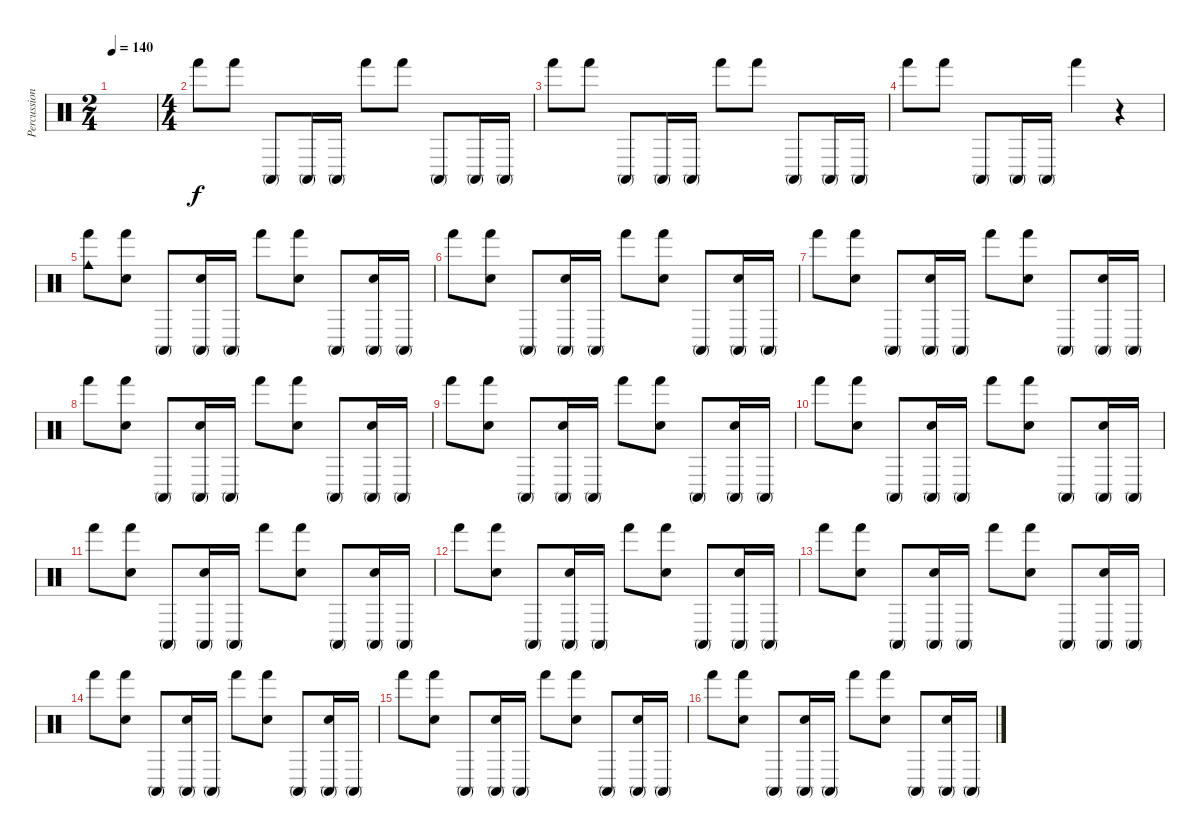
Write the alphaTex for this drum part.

\track ("Percussion" "Percussion") {instrument percussion}
\staff {score}
\articulation defaults
\ts (2 4)
\tempo 140
\clef neutral
\ks c
|
\ts (4 4)
"Hand (hit)".8 "Hand (hit)".8 "Conga high (mute)".8 "Conga high (mute)".16 "Conga high (mute)".16 "Hand (hit)".8 "Hand (hit)".8 "Conga high (mute)".8 "Conga high (mute)".16 "Conga high (mute)".16 |
"Hand (hit)".8 "Hand (hit)".8 "Conga high (mute)".8 "Conga high (mute)".16 "Conga high (mute)".16 "Hand (hit)".8 "Hand (hit)".8 "Conga high (mute)".8 "Conga high (mute)".16 "Conga high (mute)".16 |
"Hand (hit)".8 "Hand (hit)".8 "Conga high (mute)".8 "Conga high (mute)".16 "Conga high (mute)".16 "Hand (hit)".4 r.4 |
("Cowbell medium (hit)" "Hand (hit)").8 ("Hand Clap (hit)" "Hand (hit)").8 "Conga high (mute)".8 ("Hand Clap (hit)" "Conga high (mute)").16 "Conga high (mute)".16 "Hand (hit)".8 ("Hand Clap (hit)" "Hand (hit)").8 "Conga high (mute)".8 ("Hand Clap (hit)" "Conga high (mute)").16 "Conga high (mute)".16 |
"Hand (hit)".8 ("Hand Clap (hit)" "Hand (hit)").8 "Conga high (mute)".8 ("Hand Clap (hit)" "Conga high (mute)").16 "Conga high (mute)".16 "Hand (hit)".8 ("Hand Clap (hit)" "Hand (hit)").8 "Conga high (mute)".8 ("Hand Clap (hit)" "Conga high (mute)").16 "Conga high (mute)".16 |
"Hand (hit)".8 ("Hand Clap (hit)" "Hand (hit)").8 "Conga high (mute)".8 ("Hand Clap (hit)" "Conga high (mute)").16 "Conga high (mute)".16 "Hand (hit)".8 ("Hand Clap (hit)" "Hand (hit)").8 "Conga high (mute)".8 ("Hand Clap (hit)" "Conga high (mute)").16 "Conga high (mute)".16 |
"Hand (hit)".8 ("Hand Clap (hit)" "Hand (hit)").8 "Conga high (mute)".8 ("Hand Clap (hit)" "Conga high (mute)").16 "Conga high (mute)".16 "Hand (hit)".8 ("Hand Clap (hit)" "Hand (hit)").8 "Conga high (mute)".8 ("Hand Clap (hit)" "Conga high (mute)").16 "Conga high (mute)".16 |
"Hand (hit)".8 ("Hand Clap (hit)" "Hand (hit)").8 "Conga high (mute)".8 ("Hand Clap (hit)" "Conga high (mute)").16 "Conga high (mute)".16 "Hand (hit)".8 ("Hand Clap (hit)" "Hand (hit)").8 "Conga high (mute)".8 ("Hand Clap (hit)" "Conga high (mute)").16 "Conga high (mute)".16 |
"Hand (hit)".8 ("Hand Clap (hit)" "Hand (hit)").8 "Conga high (mute)".8 ("Hand Clap (hit)" "Conga high (mute)").16 "Conga high (mute)".16 "Hand (hit)".8 ("Hand Clap (hit)" "Hand (hit)").8 "Conga high (mute)".8 ("Hand Clap (hit)" "Conga high (mute)").16 "Conga high (mute)".16 |
"Hand (hit)".8 ("Hand Clap (hit)" "Hand (hit)").8 "Conga high (mute)".8 ("Hand Clap (hit)" "Conga high (mute)").16 "Conga high (mute)".16 "Hand (hit)".8 ("Hand Clap (hit)" "Hand (hit)").8 "Conga high (mute)".8 ("Hand Clap (hit)" "Conga high (mute)").16 "Conga high (mute)".16 |
"Hand (hit)".8 ("Hand Clap (hit)" "Hand (hit)").8 "Conga high (mute)".8 ("Hand Clap (hit)" "Conga high (mute)").16 "Conga high (mute)".16 "Hand (hit)".8 ("Hand Clap (hit)" "Hand (hit)").8 "Conga high (mute)".8 ("Hand Clap (hit)" "Conga high (mute)").16 "Conga high (mute)".16 |
"Hand (hit)".8 ("Hand Clap (hit)" "Hand (hit)").8 "Conga high (mute)".8 ("Hand Clap (hit)" "Conga high (mute)").16 "Conga high (mute)".16 "Hand (hit)".8 ("Hand Clap (hit)" "Hand (hit)").8 "Conga high (mute)".8 ("Hand Clap (hit)" "Conga high (mute)").16 "Conga high (mute)".16 |
"Hand (hit)".8 ("Hand Clap (hit)" "Hand (hit)").8 "Conga high (mute)".8 ("Hand Clap (hit)" "Conga high (mute)").16 "Conga high (mute)".16 "Hand (hit)".8 ("Hand Clap (hit)" "Hand (hit)").8 "Conga high (mute)".8 ("Hand Clap (hit)" "Conga high (mute)").16 "Conga high (mute)".16 |
"Hand (hit)".8 ("Hand Clap (hit)" "Hand (hit)").8 "Conga high (mute)".8 ("Hand Clap (hit)" "Conga high (mute)").16 "Conga high (mute)".16 "Hand (hit)".8 ("Hand Clap (hit)" "Hand (hit)").8 "Conga high (mute)".8 ("Hand Clap (hit)" "Conga high (mute)").16 "Conga high (mute)".16 |
"Hand (hit)".8 ("Hand Clap (hit)" "Hand (hit)").8 "Conga high (mute)".8 ("Hand Clap (hit)" "Conga high (mute)").16 "Conga high (mute)".16 "Hand (hit)".8 ("Hand Clap (hit)" "Hand (hit)").8 "Conga high (mute)".8 ("Hand Clap (hit)" "Conga high (mute)").16 "Conga high (mute)".16
